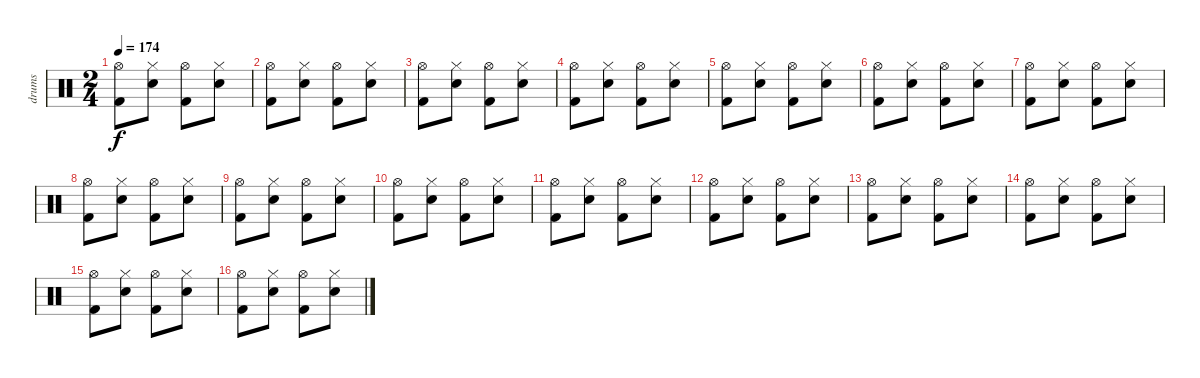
\track ("drums" "drums") {instrument percussion}
\staff {score}
\articulation defaults
\ts (2 4)
\tempo 174
\clef neutral
\ks c
("Hi-Hat (open)" "Kick (hit) 2").8{dy f} ("Snare (hit) 2" "Hi-Hat (closed)").8 ("Kick (hit) 2" "Hi-Hat (open)").8 ("Snare (hit) 2" "Hi-Hat (closed)").8 |
("Kick (hit) 2" "Hi-Hat (open)").8 ("Snare (hit) 2" "Hi-Hat (closed)").8 ("Kick (hit) 2" "Hi-Hat (open)").8 ("Snare (hit) 2" "Hi-Hat (closed)").8 |
("Kick (hit) 2" "Hi-Hat (open)").8 ("Snare (hit) 2" "Hi-Hat (closed)").8 ("Kick (hit) 2" "Hi-Hat (open)").8 ("Snare (hit) 2" "Hi-Hat (closed)").8 |
("Kick (hit) 2" "Hi-Hat (open)").8 ("Snare (hit) 2" "Hi-Hat (closed)").8 ("Kick (hit) 2" "Hi-Hat (open)").8 ("Snare (hit) 2" "Hi-Hat (closed)").8 |
("Hi-Hat (open)" "Kick (hit) 2").8 ("Snare (hit) 2" "Hi-Hat (closed)").8 ("Kick (hit) 2" "Hi-Hat (open)").8 ("Snare (hit) 2" "Hi-Hat (closed)").8 |
("Kick (hit) 2" "Hi-Hat (open)").8 ("Snare (hit) 2" "Hi-Hat (closed)").8 ("Kick (hit) 2" "Hi-Hat (open)").8 ("Snare (hit) 2" "Hi-Hat (closed)").8 |
("Kick (hit) 2" "Hi-Hat (open)").8 ("Snare (hit) 2" "Hi-Hat (closed)").8 ("Kick (hit) 2" "Hi-Hat (open)").8 ("Snare (hit) 2" "Hi-Hat (closed)").8 |
("Kick (hit) 2" "Hi-Hat (open)").8 ("Snare (hit) 2" "Hi-Hat (closed)").8 ("Kick (hit) 2" "Hi-Hat (open)").8 ("Snare (hit) 2" "Hi-Hat (closed)").8 |
("Hi-Hat (open)" "Kick (hit) 2").8 ("Snare (hit) 2" "Hi-Hat (closed)").8 ("Kick (hit) 2" "Hi-Hat (open)").8 ("Snare (hit) 2" "Hi-Hat (closed)").8 |
("Kick (hit) 2" "Hi-Hat (open)").8 ("Snare (hit) 2" "Hi-Hat (closed)").8 ("Kick (hit) 2" "Hi-Hat (open)").8 ("Snare (hit) 2" "Hi-Hat (closed)").8 |
("Kick (hit) 2" "Hi-Hat (open)").8 ("Snare (hit) 2" "Hi-Hat (closed)").8 ("Kick (hit) 2" "Hi-Hat (open)").8 ("Snare (hit) 2" "Hi-Hat (closed)").8 |
("Kick (hit) 2" "Hi-Hat (open)").8 ("Snare (hit) 2" "Hi-Hat (closed)").8 ("Kick (hit) 2" "Hi-Hat (open)").8 ("Snare (hit) 2" "Hi-Hat (closed)").8 |
("Hi-Hat (open)" "Kick (hit) 2").8 ("Snare (hit) 2" "Hi-Hat (closed)").8 ("Kick (hit) 2" "Hi-Hat (open)").8 ("Snare (hit) 2" "Hi-Hat (closed)").8 |
("Kick (hit) 2" "Hi-Hat (open)").8 ("Snare (hit) 2" "Hi-Hat (closed)").8 ("Kick (hit) 2" "Hi-Hat (open)").8 ("Snare (hit) 2" "Hi-Hat (closed)").8 |
("Kick (hit) 2" "Hi-Hat (open)").8 ("Snare (hit) 2" "Hi-Hat (closed)").8 ("Kick (hit) 2" "Hi-Hat (open)").8 ("Snare (hit) 2" "Hi-Hat (closed)").8 |
("Kick (hit) 2" "Hi-Hat (open)").8 ("Snare (hit) 2" "Hi-Hat (closed)").8 ("Kick (hit) 2" "Hi-Hat (open)").8 ("Snare (hit) 2" "Hi-Hat (closed)").8
